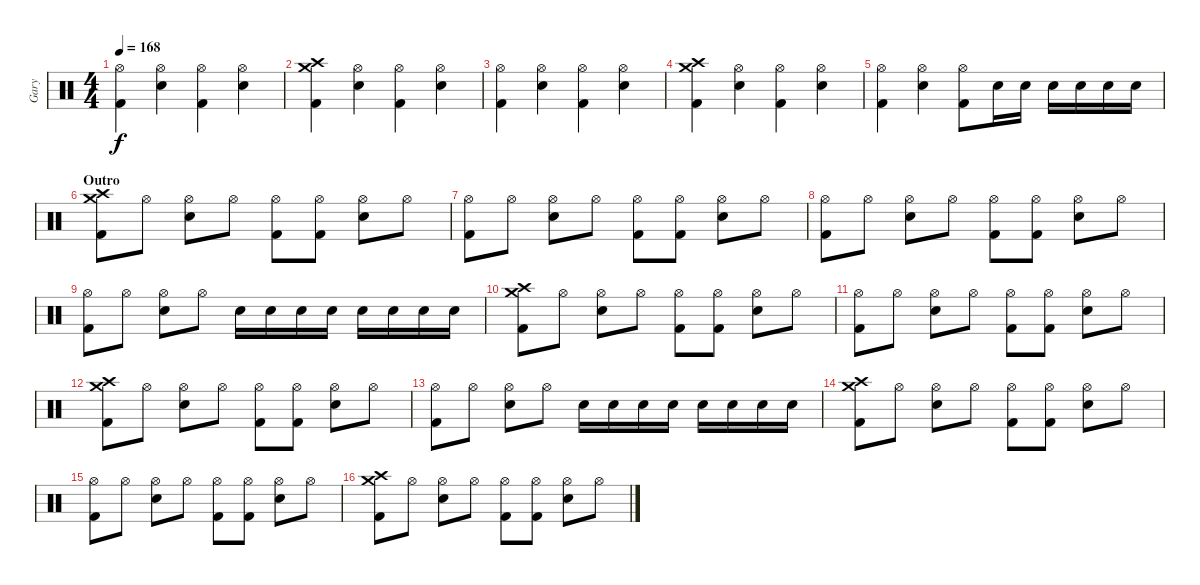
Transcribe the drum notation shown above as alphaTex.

\track ("Gary" "Gary") {instrument percussion}
\staff {score}
\articulation defaults
\ts (4 4)
\tempo 168
\clef neutral
\ks c
("Hi-Hat (open)" "Kick (hit) 2").4{dy f} ("Hi-Hat (open)" "Electric Snare (hit)").4 ("Hi-Hat (open)" "Kick (hit) 2").4 ("Hi-Hat (open)" "Electric Snare (hit)").4 |
("Crash medium (hit)" "Crash high (hit)" "Kick (hit) 2").4 ("Hi-Hat (open)" "Electric Snare (hit)").4 ("Hi-Hat (open)" "Kick (hit) 2").4 ("Hi-Hat (open)" "Electric Snare (hit)").4 |
("Hi-Hat (open)" "Kick (hit) 2").4 ("Hi-Hat (open)" "Electric Snare (hit)").4 ("Hi-Hat (open)" "Kick (hit) 2").4 ("Hi-Hat (open)" "Electric Snare (hit)").4 |
("Crash medium (hit)" "Crash high (hit)" "Kick (hit) 2").4 ("Hi-Hat (open)" "Electric Snare (hit)").4 ("Hi-Hat (open)" "Kick (hit) 2").4 ("Hi-Hat (open)" "Electric Snare (hit)").4 |
("Hi-Hat (open)" "Kick (hit) 2").4 ("Hi-Hat (open)" "Electric Snare (hit)").4 ("Hi-Hat (open)" "Kick (hit) 2").8 "Electric Snare (hit)".16 "Electric Snare (hit)".16 "Electric Snare (hit)".16 "Electric Snare (hit)".16 "Electric Snare (hit)".16 "Electric Snare (hit)".16 |
\section ("" "Outro")
("Crash high (hit)" "Crash medium (hit)" "Kick (hit) 2").8 "Hi-Hat (open)".8 ("Hi-Hat (open)" "Electric Snare (hit)").8 "Hi-Hat (open)".8 ("Hi-Hat (open)" "Kick (hit) 2").8 ("Hi-Hat (open)" "Kick (hit) 2").8 ("Hi-Hat (open)" "Electric Snare (hit)").8 "Hi-Hat (open)".8 |
("Hi-Hat (open)" "Kick (hit) 2").8 "Hi-Hat (open)".8 ("Hi-Hat (open)" "Electric Snare (hit)").8 "Hi-Hat (open)".8 ("Hi-Hat (open)" "Kick (hit) 2").8 ("Hi-Hat (open)" "Kick (hit) 2").8 ("Hi-Hat (open)" "Electric Snare (hit)").8 "Hi-Hat (open)".8 |
("Hi-Hat (open)" "Kick (hit) 2").8 "Hi-Hat (open)".8 ("Hi-Hat (open)" "Electric Snare (hit)").8 "Hi-Hat (open)".8 ("Hi-Hat (open)" "Kick (hit) 2").8 ("Hi-Hat (open)" "Kick (hit) 2").8 ("Hi-Hat (open)" "Electric Snare (hit)").8 "Hi-Hat (open)".8 |
("Hi-Hat (open)" "Kick (hit) 2").8 "Hi-Hat (open)".8 ("Hi-Hat (open)" "Electric Snare (hit)").8 "Hi-Hat (open)".8 "Electric Snare (hit)".16 "Electric Snare (hit)".16 "Electric Snare (hit)".16 "Electric Snare (hit)".16 "Electric Snare (hit)".16 "Electric Snare (hit)".16 "Electric Snare (hit)".16 "Electric Snare (hit)".16 |
("Crash high (hit)" "Crash medium (hit)" "Kick (hit) 2").8 "Hi-Hat (open)".8 ("Hi-Hat (open)" "Electric Snare (hit)").8 "Hi-Hat (open)".8 ("Hi-Hat (open)" "Kick (hit) 2").8 ("Hi-Hat (open)" "Kick (hit) 2").8 ("Hi-Hat (open)" "Electric Snare (hit)").8 "Hi-Hat (open)".8 |
("Hi-Hat (open)" "Kick (hit) 2").8 "Hi-Hat (open)".8 ("Hi-Hat (open)" "Electric Snare (hit)").8 "Hi-Hat (open)".8 ("Hi-Hat (open)" "Kick (hit) 2").8 ("Hi-Hat (open)" "Kick (hit) 2").8 ("Hi-Hat (open)" "Electric Snare (hit)").8 "Hi-Hat (open)".8 |
("Crash high (hit)" "Crash medium (hit)" "Kick (hit) 2").8 "Hi-Hat (open)".8 ("Hi-Hat (open)" "Electric Snare (hit)").8 "Hi-Hat (open)".8 ("Hi-Hat (open)" "Kick (hit) 2").8 ("Hi-Hat (open)" "Kick (hit) 2").8 ("Hi-Hat (open)" "Electric Snare (hit)").8 "Hi-Hat (open)".8 |
("Hi-Hat (open)" "Kick (hit) 2").8 "Hi-Hat (open)".8 ("Hi-Hat (open)" "Electric Snare (hit)").8 "Hi-Hat (open)".8 "Electric Snare (hit)".16 "Electric Snare (hit)".16 "Electric Snare (hit)".16 "Electric Snare (hit)".16 "Electric Snare (hit)".16 "Electric Snare (hit)".16 "Electric Snare (hit)".16 "Electric Snare (hit)".16 |
("Crash high (hit)" "Crash medium (hit)" "Kick (hit) 2").8 "Hi-Hat (open)".8 ("Hi-Hat (open)" "Electric Snare (hit)").8 "Hi-Hat (open)".8 ("Hi-Hat (open)" "Kick (hit) 2").8 ("Hi-Hat (open)" "Kick (hit) 2").8 ("Hi-Hat (open)" "Electric Snare (hit)").8 "Hi-Hat (open)".8 |
("Hi-Hat (open)" "Kick (hit) 2").8 "Hi-Hat (open)".8 ("Hi-Hat (open)" "Electric Snare (hit)").8 "Hi-Hat (open)".8 ("Hi-Hat (open)" "Kick (hit) 2").8 ("Hi-Hat (open)" "Kick (hit) 2").8 ("Hi-Hat (open)" "Electric Snare (hit)").8 "Hi-Hat (open)".8 |
("Crash high (hit)" "Crash medium (hit)" "Kick (hit) 2").8 "Hi-Hat (open)".8 ("Hi-Hat (open)" "Electric Snare (hit)").8 "Hi-Hat (open)".8 ("Hi-Hat (open)" "Kick (hit) 2").8 ("Hi-Hat (open)" "Kick (hit) 2").8 ("Hi-Hat (open)" "Electric Snare (hit)").8 "Hi-Hat (open)".8
